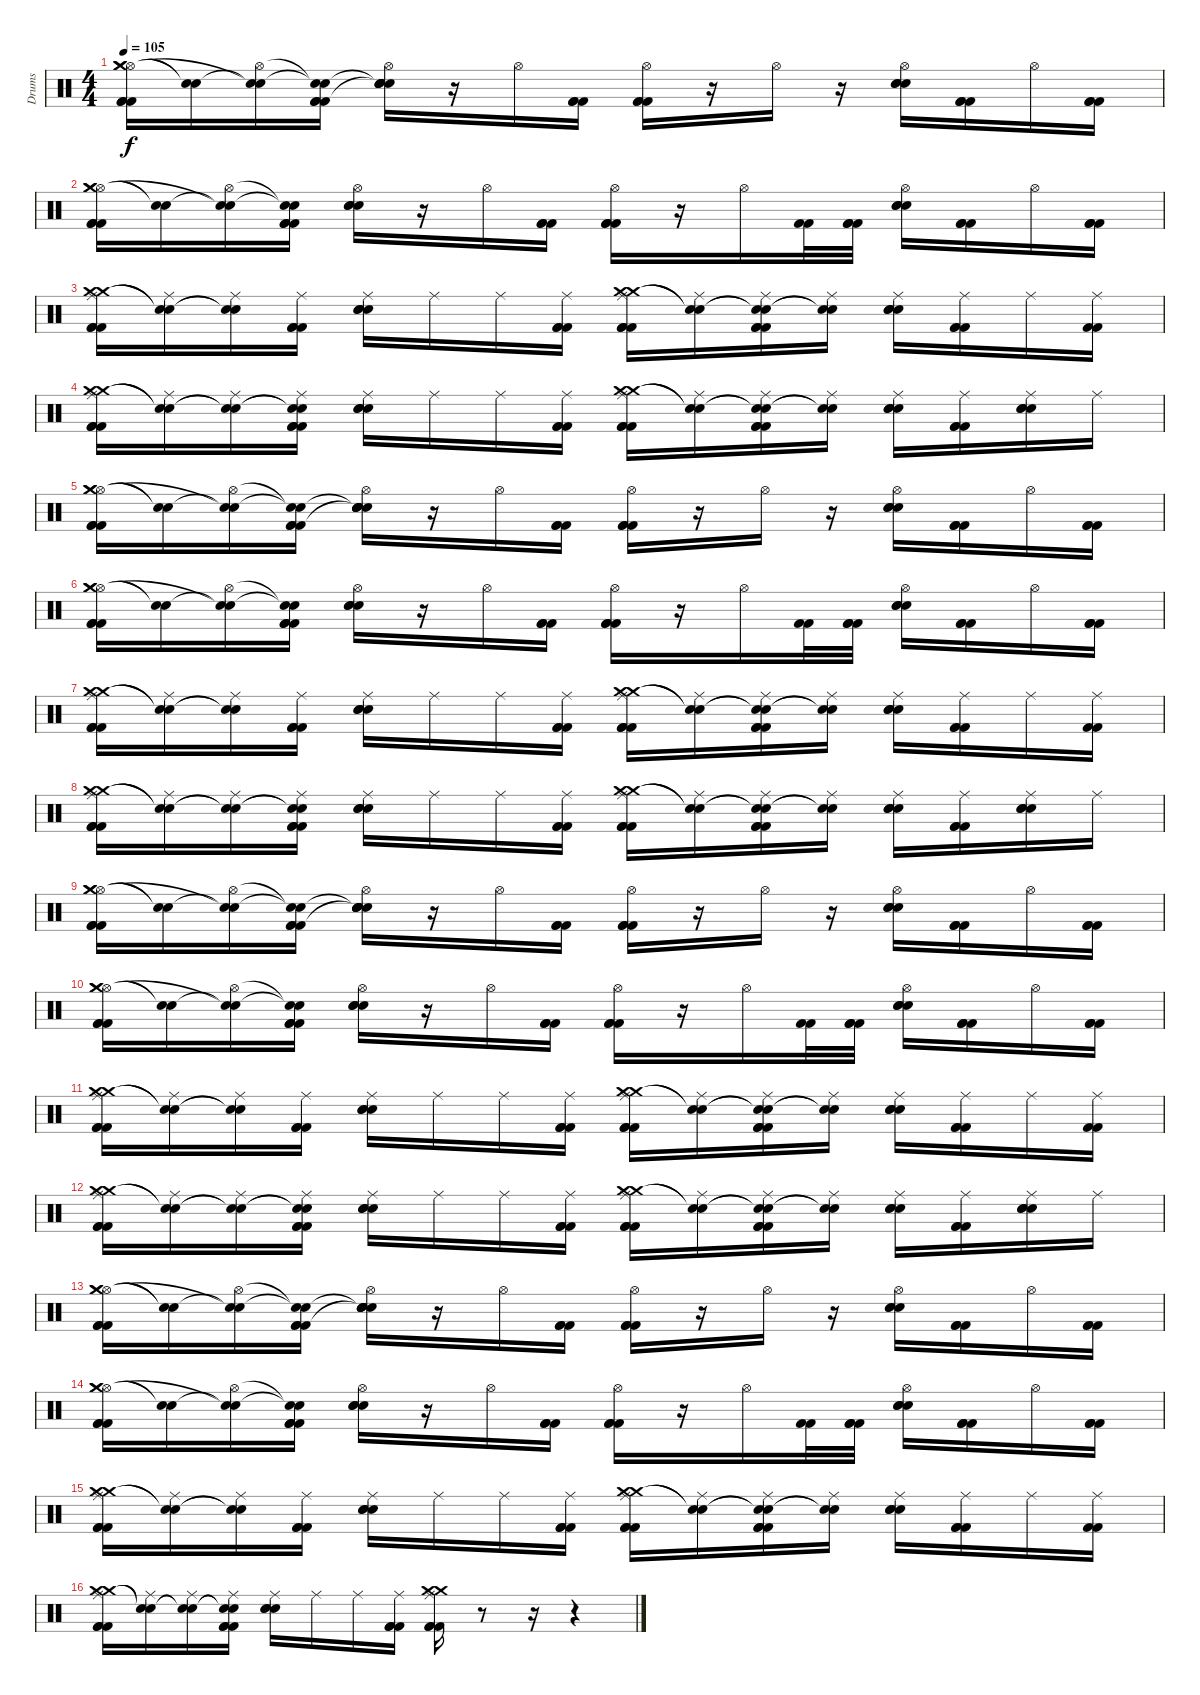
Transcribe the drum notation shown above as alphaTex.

\track ("Drums" "Drums") {instrument percussion}
\staff {score}
\articulation defaults
\ts (4 4)
\tempo 105
\clef neutral
\ks c
("Hi-Hat (open)" "Crash medium (hit)" "Crash medium (hit)" "Kick (hit) 2" "Kick (hit) 2" "Kick (hit) 2").16{dy f} ("Snare (hit)"{t} "Snare (hit)"{t}).16 ("Hi-Hat (open)" "Snare (hit)"{t} "Snare (hit)"{t}).16 ("Snare (hit)"{t} "Snare (hit)"{t} "Kick (hit) 2" "Kick (hit) 2" "Kick (hit) 2").16 ("Hi-Hat (open)" "Snare (hit)"{t} "Snare (hit)"{t} "Electric Snare (hit)" "Electric Snare (hit)" "Electric Snare (hit)").16 r.16 "Hi-Hat (open)".16 ("Kick (hit) 2" "Kick (hit) 2" "Kick (hit) 2").16 ("Hi-Hat (open)" "Kick (hit) 2" "Kick (hit) 2" "Kick (hit) 2").16 r.16 "Hi-Hat (open)".16 r.16 ("Hi-Hat (open)" "Electric Snare (hit)" "Electric Snare (hit)" "Electric Snare (hit)").16 ("Kick (hit) 2" "Kick (hit) 2" "Kick (hit) 2").16 "Hi-Hat (open)".16 ("Kick (hit) 2" "Kick (hit) 2" "Kick (hit) 2").16 |
("Hi-Hat (open)" "Crash medium (hit)" "Crash medium (hit)" "Kick (hit) 2" "Kick (hit) 2" "Kick (hit) 2").16 ("Snare (hit)"{t} "Snare (hit)"{t}).16 ("Hi-Hat (open)" "Snare (hit)"{t} "Snare (hit)"{t}).16 ("Snare (hit)"{t} "Snare (hit)"{t} "Kick (hit) 2" "Kick (hit) 2" "Kick (hit) 2").16 ("Hi-Hat (open)" "Electric Snare (hit)" "Electric Snare (hit)" "Electric Snare (hit)").16 r.16 "Hi-Hat (open)".16 ("Kick (hit) 2" "Kick (hit) 2" "Kick (hit) 2").16 ("Hi-Hat (open)" "Kick (hit) 2" "Kick (hit) 2" "Kick (hit) 2").16 r.16 "Hi-Hat (open)".16 ("Kick (hit) 2" "Kick (hit) 2").32 ("Kick (hit) 2" "Kick (hit) 2" "Kick (hit) 2").32 ("Hi-Hat (open)" "Electric Snare (hit)" "Electric Snare (hit)" "Electric Snare (hit)").16 ("Kick (hit) 2" "Kick (hit) 2" "Kick (hit) 2").16 "Hi-Hat (open)".16 ("Kick (hit) 2" "Kick (hit) 2" "Kick (hit) 2").16 |
("Ride (middle)" "Crash medium (hit)" "Crash medium (hit)" "Kick (hit) 2" "Kick (hit) 2" "Kick (hit) 2").16 ("Ride (middle)" "Snare (hit)"{t} "Snare (hit)"{t}).16 ("Ride (middle)" "Snare (hit)"{t} "Snare (hit)"{t}).16 ("Ride (middle)" "Kick (hit) 2" "Kick (hit) 2" "Kick (hit) 2").16 ("Ride (middle)" "Electric Snare (hit)" "Electric Snare (hit)" "Electric Snare (hit)").16 "Ride (middle)".16 "Ride (middle)".16 ("Ride (middle)" "Kick (hit) 2" "Kick (hit) 2" "Kick (hit) 2").16 ("Ride (middle)" "Crash medium (hit)" "Crash medium (hit)" "Kick (hit) 2" "Kick (hit) 2" "Kick (hit) 2").16 ("Ride (middle)" "Snare (hit)"{t} "Snare (hit)"{t}).16 ("Ride (middle)" "Snare (hit)"{t} "Snare (hit)"{t} "Kick (hit) 2" "Kick (hit) 2" "Kick (hit) 2").16 ("Ride (middle)" "Snare (hit)"{t} "Snare (hit)"{t}).16 ("Ride (middle)" "Electric Snare (hit)" "Electric Snare (hit)" "Electric Snare (hit)").16 ("Ride (middle)" "Kick (hit) 2" "Kick (hit) 2" "Kick (hit) 2").16 "Ride (middle)".16 ("Ride (middle)" "Kick (hit) 2" "Kick (hit) 2").16 |
("Ride (middle)" "Crash medium (hit)" "Crash medium (hit)" "Kick (hit) 2" "Kick (hit) 2" "Kick (hit) 2").16 ("Ride (middle)" "Snare (hit)"{t} "Snare (hit)"{t}).16 ("Ride (middle)" "Snare (hit)"{t} "Snare (hit)"{t}).16 ("Ride (middle)" "Snare (hit)"{t} "Snare (hit)"{t} "Kick (hit) 2" "Kick (hit) 2" "Kick (hit) 2").16 ("Ride (middle)" "Electric Snare (hit)" "Electric Snare (hit)" "Electric Snare (hit)").16 "Ride (middle)".16 "Ride (middle)".16 ("Ride (middle)" "Kick (hit) 2" "Kick (hit) 2" "Kick (hit) 2").16 ("Ride (middle)" "Crash medium (hit)" "Crash medium (hit)" "Kick (hit) 2" "Kick (hit) 2" "Kick (hit) 2").16 ("Ride (middle)" "Snare (hit)"{t} "Snare (hit)"{t}).16 ("Ride (middle)" "Snare (hit)"{t} "Snare (hit)"{t} "Kick (hit) 2" "Kick (hit) 2" "Kick (hit) 2").16 ("Ride (middle)" "Snare (hit)"{t} "Snare (hit)"{t}).16 ("Ride (middle)" "Electric Snare (hit)" "Electric Snare (hit)" "Electric Snare (hit)").16 ("Ride (middle)" "Kick (hit) 2" "Kick (hit) 2" "Kick (hit) 2").16 ("Ride (middle)" "Electric Snare (hit)" "Electric Snare (hit)" "Electric Snare (hit)").16 "Ride (middle)".16 |
("Hi-Hat (open)" "Crash medium (hit)" "Crash medium (hit)" "Kick (hit) 2" "Kick (hit) 2" "Kick (hit) 2").16 ("Snare (hit)"{t} "Snare (hit)"{t}).16 ("Hi-Hat (open)" "Snare (hit)"{t} "Snare (hit)"{t}).16 ("Snare (hit)"{t} "Snare (hit)"{t} "Kick (hit) 2" "Kick (hit) 2" "Kick (hit) 2").16 ("Hi-Hat (open)" "Snare (hit)"{t} "Snare (hit)"{t} "Electric Snare (hit)" "Electric Snare (hit)" "Electric Snare (hit)").16 r.16 "Hi-Hat (open)".16 ("Kick (hit) 2" "Kick (hit) 2" "Kick (hit) 2").16 ("Hi-Hat (open)" "Kick (hit) 2" "Kick (hit) 2" "Kick (hit) 2").16 r.16 "Hi-Hat (open)".16 r.16 ("Hi-Hat (open)" "Electric Snare (hit)" "Electric Snare (hit)" "Electric Snare (hit)").16 ("Kick (hit) 2" "Kick (hit) 2" "Kick (hit) 2").16 "Hi-Hat (open)".16 ("Kick (hit) 2" "Kick (hit) 2" "Kick (hit) 2").16 |
("Hi-Hat (open)" "Crash medium (hit)" "Crash medium (hit)" "Kick (hit) 2" "Kick (hit) 2" "Kick (hit) 2").16 ("Snare (hit)"{t} "Snare (hit)"{t}).16 ("Hi-Hat (open)" "Snare (hit)"{t} "Snare (hit)"{t}).16 ("Snare (hit)"{t} "Snare (hit)"{t} "Kick (hit) 2" "Kick (hit) 2" "Kick (hit) 2").16 ("Hi-Hat (open)" "Electric Snare (hit)" "Electric Snare (hit)" "Electric Snare (hit)").16 r.16 "Hi-Hat (open)".16 ("Kick (hit) 2" "Kick (hit) 2" "Kick (hit) 2").16 ("Hi-Hat (open)" "Kick (hit) 2" "Kick (hit) 2" "Kick (hit) 2").16 r.16 "Hi-Hat (open)".16 ("Kick (hit) 2" "Kick (hit) 2").32 ("Kick (hit) 2" "Kick (hit) 2" "Kick (hit) 2").32 ("Hi-Hat (open)" "Electric Snare (hit)" "Electric Snare (hit)" "Electric Snare (hit)").16 ("Kick (hit) 2" "Kick (hit) 2" "Kick (hit) 2").16 "Hi-Hat (open)".16 ("Kick (hit) 2" "Kick (hit) 2" "Kick (hit) 2").16 |
("Ride (middle)" "Crash medium (hit)" "Crash medium (hit)" "Kick (hit) 2" "Kick (hit) 2" "Kick (hit) 2").16 ("Ride (middle)" "Snare (hit)"{t} "Snare (hit)"{t}).16 ("Ride (middle)" "Snare (hit)"{t} "Snare (hit)"{t}).16 ("Ride (middle)" "Kick (hit) 2" "Kick (hit) 2" "Kick (hit) 2").16 ("Ride (middle)" "Electric Snare (hit)" "Electric Snare (hit)" "Electric Snare (hit)").16 "Ride (middle)".16 "Ride (middle)".16 ("Ride (middle)" "Kick (hit) 2" "Kick (hit) 2" "Kick (hit) 2").16 ("Ride (middle)" "Crash medium (hit)" "Crash medium (hit)" "Kick (hit) 2" "Kick (hit) 2" "Kick (hit) 2").16 ("Ride (middle)" "Snare (hit)"{t} "Snare (hit)"{t}).16 ("Ride (middle)" "Snare (hit)"{t} "Snare (hit)"{t} "Kick (hit) 2" "Kick (hit) 2" "Kick (hit) 2").16 ("Ride (middle)" "Snare (hit)"{t} "Snare (hit)"{t}).16 ("Ride (middle)" "Electric Snare (hit)" "Electric Snare (hit)" "Electric Snare (hit)").16 ("Ride (middle)" "Kick (hit) 2" "Kick (hit) 2" "Kick (hit) 2").16 "Ride (middle)".16 ("Ride (middle)" "Kick (hit) 2" "Kick (hit) 2").16 |
("Ride (middle)" "Crash medium (hit)" "Crash medium (hit)" "Kick (hit) 2" "Kick (hit) 2" "Kick (hit) 2").16 ("Ride (middle)" "Snare (hit)"{t} "Snare (hit)"{t}).16 ("Ride (middle)" "Snare (hit)"{t} "Snare (hit)"{t}).16 ("Ride (middle)" "Snare (hit)"{t} "Snare (hit)"{t} "Kick (hit) 2" "Kick (hit) 2" "Kick (hit) 2").16 ("Ride (middle)" "Electric Snare (hit)" "Electric Snare (hit)" "Electric Snare (hit)").16 "Ride (middle)".16 "Ride (middle)".16 ("Ride (middle)" "Kick (hit) 2" "Kick (hit) 2" "Kick (hit) 2").16 ("Ride (middle)" "Crash medium (hit)" "Crash medium (hit)" "Kick (hit) 2" "Kick (hit) 2" "Kick (hit) 2").16 ("Ride (middle)" "Snare (hit)"{t} "Snare (hit)"{t}).16 ("Ride (middle)" "Snare (hit)"{t} "Snare (hit)"{t} "Kick (hit) 2" "Kick (hit) 2" "Kick (hit) 2").16 ("Ride (middle)" "Snare (hit)"{t} "Snare (hit)"{t}).16 ("Ride (middle)" "Electric Snare (hit)" "Electric Snare (hit)" "Electric Snare (hit)").16 ("Ride (middle)" "Kick (hit) 2" "Kick (hit) 2" "Kick (hit) 2").16 ("Ride (middle)" "Electric Snare (hit)" "Electric Snare (hit)" "Electric Snare (hit)").16 "Ride (middle)".16 |
("Hi-Hat (open)" "Crash medium (hit)" "Crash medium (hit)" "Kick (hit) 2" "Kick (hit) 2" "Kick (hit) 2").16 ("Snare (hit)"{t} "Snare (hit)"{t}).16 ("Hi-Hat (open)" "Snare (hit)"{t} "Snare (hit)"{t}).16 ("Snare (hit)"{t} "Snare (hit)"{t} "Kick (hit) 2" "Kick (hit) 2" "Kick (hit) 2").16 ("Hi-Hat (open)" "Snare (hit)"{t} "Snare (hit)"{t} "Electric Snare (hit)" "Electric Snare (hit)" "Electric Snare (hit)").16 r.16 "Hi-Hat (open)".16 ("Kick (hit) 2" "Kick (hit) 2" "Kick (hit) 2").16 ("Hi-Hat (open)" "Kick (hit) 2" "Kick (hit) 2" "Kick (hit) 2").16 r.16 "Hi-Hat (open)".16 r.16 ("Hi-Hat (open)" "Electric Snare (hit)" "Electric Snare (hit)" "Electric Snare (hit)").16 ("Kick (hit) 2" "Kick (hit) 2" "Kick (hit) 2").16 "Hi-Hat (open)".16 ("Kick (hit) 2" "Kick (hit) 2" "Kick (hit) 2").16 |
("Hi-Hat (open)" "Crash medium (hit)" "Crash medium (hit)" "Kick (hit) 2" "Kick (hit) 2" "Kick (hit) 2").16 ("Snare (hit)"{t} "Snare (hit)"{t}).16 ("Hi-Hat (open)" "Snare (hit)"{t} "Snare (hit)"{t}).16 ("Snare (hit)"{t} "Snare (hit)"{t} "Kick (hit) 2" "Kick (hit) 2" "Kick (hit) 2").16 ("Hi-Hat (open)" "Electric Snare (hit)" "Electric Snare (hit)" "Electric Snare (hit)").16 r.16 "Hi-Hat (open)".16 ("Kick (hit) 2" "Kick (hit) 2" "Kick (hit) 2").16 ("Hi-Hat (open)" "Kick (hit) 2" "Kick (hit) 2" "Kick (hit) 2").16 r.16 "Hi-Hat (open)".16 ("Kick (hit) 2" "Kick (hit) 2").32 ("Kick (hit) 2" "Kick (hit) 2" "Kick (hit) 2").32 ("Hi-Hat (open)" "Electric Snare (hit)" "Electric Snare (hit)" "Electric Snare (hit)").16 ("Kick (hit) 2" "Kick (hit) 2" "Kick (hit) 2").16 "Hi-Hat (open)".16 ("Kick (hit) 2" "Kick (hit) 2" "Kick (hit) 2").16 |
("Ride (middle)" "Crash medium (hit)" "Crash medium (hit)" "Kick (hit) 2" "Kick (hit) 2" "Kick (hit) 2").16 ("Ride (middle)" "Snare (hit)"{t} "Snare (hit)"{t}).16 ("Ride (middle)" "Snare (hit)"{t} "Snare (hit)"{t}).16 ("Ride (middle)" "Kick (hit) 2" "Kick (hit) 2" "Kick (hit) 2").16 ("Ride (middle)" "Electric Snare (hit)" "Electric Snare (hit)" "Electric Snare (hit)").16 "Ride (middle)".16 "Ride (middle)".16 ("Ride (middle)" "Kick (hit) 2" "Kick (hit) 2" "Kick (hit) 2").16 ("Ride (middle)" "Crash medium (hit)" "Crash medium (hit)" "Kick (hit) 2" "Kick (hit) 2" "Kick (hit) 2").16 ("Ride (middle)" "Snare (hit)"{t} "Snare (hit)"{t}).16 ("Ride (middle)" "Snare (hit)"{t} "Snare (hit)"{t} "Kick (hit) 2" "Kick (hit) 2" "Kick (hit) 2").16 ("Ride (middle)" "Snare (hit)"{t} "Snare (hit)"{t}).16 ("Ride (middle)" "Electric Snare (hit)" "Electric Snare (hit)" "Electric Snare (hit)").16 ("Ride (middle)" "Kick (hit) 2" "Kick (hit) 2" "Kick (hit) 2").16 "Ride (middle)".16 ("Ride (middle)" "Kick (hit) 2" "Kick (hit) 2").16 |
("Ride (middle)" "Crash medium (hit)" "Crash medium (hit)" "Kick (hit) 2" "Kick (hit) 2" "Kick (hit) 2").16 ("Ride (middle)" "Snare (hit)"{t} "Snare (hit)"{t}).16 ("Ride (middle)" "Snare (hit)"{t} "Snare (hit)"{t}).16 ("Ride (middle)" "Snare (hit)"{t} "Snare (hit)"{t} "Kick (hit) 2" "Kick (hit) 2" "Kick (hit) 2").16 ("Ride (middle)" "Electric Snare (hit)" "Electric Snare (hit)" "Electric Snare (hit)").16 "Ride (middle)".16 "Ride (middle)".16 ("Ride (middle)" "Kick (hit) 2" "Kick (hit) 2" "Kick (hit) 2").16 ("Ride (middle)" "Crash medium (hit)" "Crash medium (hit)" "Kick (hit) 2" "Kick (hit) 2" "Kick (hit) 2").16 ("Ride (middle)" "Snare (hit)"{t} "Snare (hit)"{t}).16 ("Ride (middle)" "Snare (hit)"{t} "Snare (hit)"{t} "Kick (hit) 2" "Kick (hit) 2" "Kick (hit) 2").16 ("Ride (middle)" "Snare (hit)"{t} "Snare (hit)"{t}).16 ("Ride (middle)" "Electric Snare (hit)" "Electric Snare (hit)" "Electric Snare (hit)").16 ("Ride (middle)" "Kick (hit) 2" "Kick (hit) 2" "Kick (hit) 2").16 ("Ride (middle)" "Electric Snare (hit)" "Electric Snare (hit)" "Electric Snare (hit)").16 "Ride (middle)".16 |
("Hi-Hat (open)" "Crash medium (hit)" "Crash medium (hit)" "Kick (hit) 2" "Kick (hit) 2" "Kick (hit) 2").16 ("Snare (hit)"{t} "Snare (hit)"{t}).16 ("Hi-Hat (open)" "Snare (hit)"{t} "Snare (hit)"{t}).16 ("Snare (hit)"{t} "Snare (hit)"{t} "Kick (hit) 2" "Kick (hit) 2" "Kick (hit) 2").16 ("Hi-Hat (open)" "Snare (hit)"{t} "Snare (hit)"{t} "Electric Snare (hit)" "Electric Snare (hit)" "Electric Snare (hit)").16 r.16 "Hi-Hat (open)".16 ("Kick (hit) 2" "Kick (hit) 2" "Kick (hit) 2").16 ("Hi-Hat (open)" "Kick (hit) 2" "Kick (hit) 2" "Kick (hit) 2").16 r.16 "Hi-Hat (open)".16 r.16 ("Hi-Hat (open)" "Electric Snare (hit)" "Electric Snare (hit)" "Electric Snare (hit)").16 ("Kick (hit) 2" "Kick (hit) 2" "Kick (hit) 2").16 "Hi-Hat (open)".16 ("Kick (hit) 2" "Kick (hit) 2" "Kick (hit) 2").16 |
("Hi-Hat (open)" "Crash medium (hit)" "Crash medium (hit)" "Kick (hit) 2" "Kick (hit) 2" "Kick (hit) 2").16 ("Snare (hit)"{t} "Snare (hit)"{t}).16 ("Hi-Hat (open)" "Snare (hit)"{t} "Snare (hit)"{t}).16 ("Snare (hit)"{t} "Snare (hit)"{t} "Kick (hit) 2" "Kick (hit) 2" "Kick (hit) 2").16 ("Hi-Hat (open)" "Electric Snare (hit)" "Electric Snare (hit)" "Electric Snare (hit)").16 r.16 "Hi-Hat (open)".16 ("Kick (hit) 2" "Kick (hit) 2" "Kick (hit) 2").16 ("Hi-Hat (open)" "Kick (hit) 2" "Kick (hit) 2" "Kick (hit) 2").16 r.16 "Hi-Hat (open)".16 ("Kick (hit) 2" "Kick (hit) 2").32 ("Kick (hit) 2" "Kick (hit) 2" "Kick (hit) 2").32 ("Hi-Hat (open)" "Electric Snare (hit)" "Electric Snare (hit)" "Electric Snare (hit)").16 ("Kick (hit) 2" "Kick (hit) 2" "Kick (hit) 2").16 "Hi-Hat (open)".16 ("Kick (hit) 2" "Kick (hit) 2" "Kick (hit) 2").16 |
("Ride (middle)" "Crash medium (hit)" "Crash medium (hit)" "Kick (hit) 2" "Kick (hit) 2" "Kick (hit) 2").16 ("Ride (middle)" "Snare (hit)"{t} "Snare (hit)"{t}).16 ("Ride (middle)" "Snare (hit)"{t} "Snare (hit)"{t}).16 ("Ride (middle)" "Kick (hit) 2" "Kick (hit) 2" "Kick (hit) 2").16 ("Ride (middle)" "Electric Snare (hit)" "Electric Snare (hit)" "Electric Snare (hit)").16 "Ride (middle)".16 "Ride (middle)".16 ("Ride (middle)" "Kick (hit) 2" "Kick (hit) 2" "Kick (hit) 2").16 ("Ride (middle)" "Crash medium (hit)" "Crash medium (hit)" "Kick (hit) 2" "Kick (hit) 2" "Kick (hit) 2").16 ("Ride (middle)" "Snare (hit)"{t} "Snare (hit)"{t}).16 ("Ride (middle)" "Snare (hit)"{t} "Snare (hit)"{t} "Kick (hit) 2" "Kick (hit) 2" "Kick (hit) 2").16 ("Ride (middle)" "Snare (hit)"{t} "Snare (hit)"{t}).16 ("Ride (middle)" "Electric Snare (hit)" "Electric Snare (hit)" "Electric Snare (hit)").16 ("Ride (middle)" "Kick (hit) 2" "Kick (hit) 2" "Kick (hit) 2").16 "Ride (middle)".16 ("Ride (middle)" "Kick (hit) 2" "Kick (hit) 2").16 |
("Ride (middle)" "Crash medium (hit)" "Crash medium (hit)" "Kick (hit) 2" "Kick (hit) 2" "Kick (hit) 2").16 ("Ride (middle)" "Snare (hit)"{t} "Snare (hit)"{t}).16 ("Ride (middle)" "Snare (hit)"{t} "Snare (hit)"{t}).16 ("Ride (middle)" "Snare (hit)"{t} "Snare (hit)"{t} "Kick (hit) 2" "Kick (hit) 2" "Kick (hit) 2").16 ("Ride (middle)" "Electric Snare (hit)" "Electric Snare (hit)" "Electric Snare (hit)").16 "Ride (middle)".16 "Ride (middle)".16 ("Ride (middle)" "Kick (hit) 2" "Kick (hit) 2" "Kick (hit) 2").16 ("Ride (middle)" "Crash medium (hit)" "Crash medium (hit)" "Kick (hit) 2" "Kick (hit) 2" "Kick (hit) 2").16 r.8 r.16 r.4
